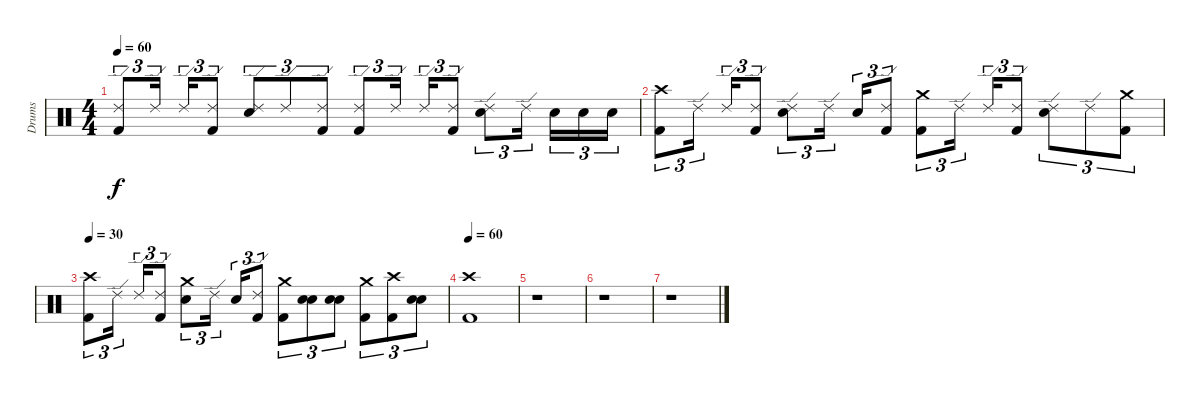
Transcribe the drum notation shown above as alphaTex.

\track ("Drums" "Drums") {instrument percussion}
\staff {score}
\articulation defaults
\ts (4 4)
\tempo 60
\clef neutral
\ks c
("Ride (edge) 2" "Kick (hit) 2").8{tu (3 2) dy f} "Ride (edge) 2".16{tu (3 2)} "Ride (edge) 2".16{tu (3 2)} ("Ride (edge) 2" "Kick (hit) 2").8{tu (3 2)} ("Ride (edge) 2" "Electric Snare (hit)").8{tu (3 2)} "Ride (edge) 2".8{tu (3 2)} ("Ride (edge) 2" "Kick (hit) 2").8{tu (3 2)} ("Ride (edge) 2" "Kick (hit) 2").8{tu (3 2)} "Ride (edge) 2".16{tu (3 2)} "Ride (edge) 2".16{tu (3 2)} ("Ride (edge) 2" "Kick (hit) 2").8{tu (3 2)} ("Ride (edge) 2" "Electric Snare (hit)").8{tu (3 2)} "Ride (edge) 2".16{tu (3 2)} "Electric Snare (hit)".16{tu (3 2)} "Electric Snare (hit)".16{tu (3 2)} "Electric Snare (hit)".16{tu (3 2)} |
("Crash high (hit)" "Kick (hit) 2").8{tu (3 2)} "Ride (edge) 2".16{tu (3 2)} "Ride (edge) 2".16{tu (3 2)} ("Ride (edge) 2" "Kick (hit) 2").8{tu (3 2)} ("Ride (edge) 2" "Electric Snare (hit)").8{tu (3 2)} "Ride (edge) 2".16{tu (3 2)} "Electric Snare (hit)".16{tu (3 2)} ("Ride (edge) 2" "Kick (hit) 2").8{tu (3 2)} ("Crash medium (hit)" "Kick (hit) 2").8{tu (3 2)} "Ride (edge) 2".16{tu (3 2)} "Ride (edge) 2".16{tu (3 2)} ("Ride (edge) 2" "Kick (hit) 2").8{tu (3 2)} ("Ride (edge) 2" "Electric Snare (hit)").8{tu (3 2)} "Ride (edge) 2".8{tu (3 2)} ("Crash medium (hit)" "Kick (hit) 2").8{tu (3 2)} |
\tempo 30
("Crash high (hit)" "Kick (hit) 2").8{tu (3 2)} "Ride (edge) 2".16{tu (3 2)} "Ride (edge) 2".16{tu (3 2)} ("Ride (edge) 2" "Kick (hit) 2").8{tu (3 2)} ("Crash medium (hit)" "Electric Snare (hit)").8{tu (3 2)} "Ride (edge) 2".16{tu (3 2)} "Electric Snare (hit)".16{tu (3 2)} ("Ride (edge) 2" "Kick (hit) 2").8{tu (3 2)} ("Crash medium (hit)" "Kick (hit) 2").8{tu (3 2)} ("Electric Snare (hit)" "Electric Snare (hit)").8{tu (3 2) bu 60} ("Electric Snare (hit)" "Electric Snare (hit)").8{tu (3 2) bu 60} ("Crash medium (hit)" "Kick (hit) 2").8{tu (3 2)} ("Crash high (hit)" "Kick (hit) 2").8{tu (3 2)} ("Electric Snare (hit)" "Electric Snare (hit)").8{tu (3 2) bu 60} |
\tempo 60
("Crash high (hit)" "Kick (hit) 2").1 |
r.1 |
r.1 |
r.1
